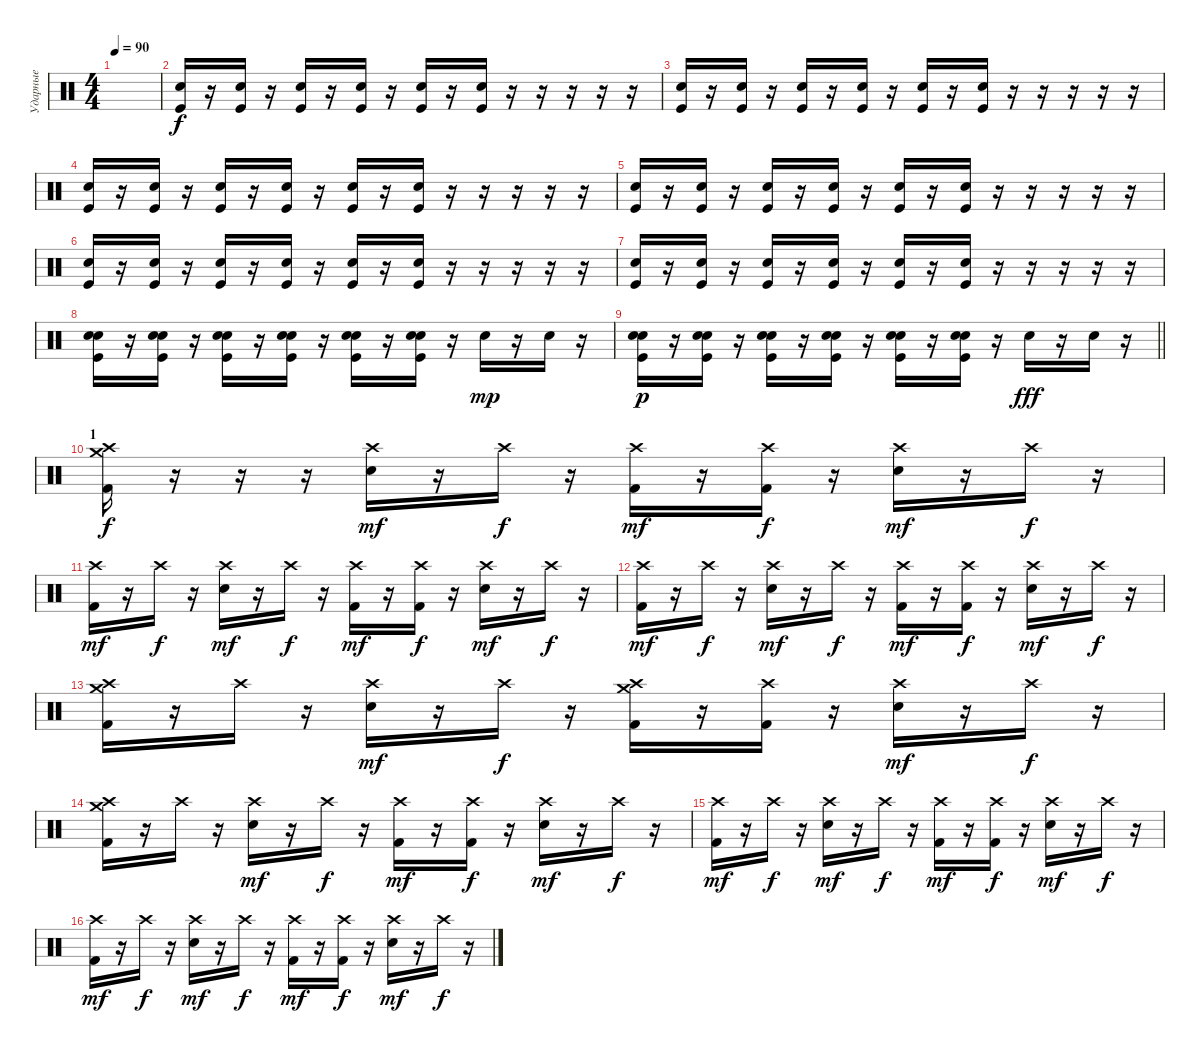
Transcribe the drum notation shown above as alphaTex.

\track ("Ударные" "Ударные") {instrument percussion}
\staff {score}
\articulation defaults
\ts (4 4)
\tempo 90
\clef neutral
\ks c
|
("Hand Clap (hit)" "Kick (hit)").16 r.16 ("Hand Clap (hit)" "Kick (hit)").16 r.16 ("Hand Clap (hit)" "Kick (hit)").16 r.16 ("Hand Clap (hit)" "Kick (hit)").16 r.16 ("Hand Clap (hit)" "Kick (hit)").16 r.16 ("Hand Clap (hit)" "Kick (hit)").16 r.16 r.16 r.16 r.16 r.16 |
("Hand Clap (hit)" "Kick (hit)").16 r.16 ("Hand Clap (hit)" "Kick (hit)").16 r.16 ("Hand Clap (hit)" "Kick (hit)").16 r.16 ("Hand Clap (hit)" "Kick (hit)").16 r.16 ("Hand Clap (hit)" "Kick (hit)").16 r.16 ("Hand Clap (hit)" "Kick (hit)").16 r.16 r.16 r.16 r.16 r.16 |
("Hand Clap (hit)" "Kick (hit)").16 r.16 ("Hand Clap (hit)" "Kick (hit)").16 r.16 ("Hand Clap (hit)" "Kick (hit)").16 r.16 ("Hand Clap (hit)" "Kick (hit)").16 r.16 ("Hand Clap (hit)" "Kick (hit)").16 r.16 ("Hand Clap (hit)" "Kick (hit)").16 r.16 r.16 r.16 r.16 r.16 |
("Hand Clap (hit)" "Kick (hit)").16 r.16 ("Hand Clap (hit)" "Kick (hit)").16 r.16 ("Hand Clap (hit)" "Kick (hit)").16 r.16 ("Hand Clap (hit)" "Kick (hit)").16 r.16 ("Hand Clap (hit)" "Kick (hit)").16 r.16 ("Hand Clap (hit)" "Kick (hit)").16 r.16 r.16 r.16 r.16 r.16 |
("Hand Clap (hit)" "Kick (hit)").16 r.16 ("Hand Clap (hit)" "Kick (hit)").16 r.16 ("Hand Clap (hit)" "Kick (hit)").16 r.16 ("Hand Clap (hit)" "Kick (hit)").16 r.16 ("Hand Clap (hit)" "Kick (hit)").16 r.16 ("Hand Clap (hit)" "Kick (hit)").16 r.16 r.16 r.16 r.16 r.16 |
("Hand Clap (hit)" "Kick (hit)").16 r.16 ("Hand Clap (hit)" "Kick (hit)").16 r.16 ("Hand Clap (hit)" "Kick (hit)").16 r.16 ("Hand Clap (hit)" "Kick (hit)").16 r.16 ("Hand Clap (hit)" "Kick (hit)").16 r.16 ("Hand Clap (hit)" "Kick (hit)").16 r.16 r.16 r.16 r.16 r.16 |
("Electric Snare (hit)" "Hand Clap (hit)" "Kick (hit)").16 r.16 ("Electric Snare (hit)" "Hand Clap (hit)" "Kick (hit)").16 r.16 ("Electric Snare (hit)" "Hand Clap (hit)" "Kick (hit)").16 r.16 ("Electric Snare (hit)" "Hand Clap (hit)" "Kick (hit)").16 r.16 ("Electric Snare (hit)" "Hand Clap (hit)" "Kick (hit)").16 r.16 ("Electric Snare (hit)" "Hand Clap (hit)" "Kick (hit)").16 r.16 "Electric Snare (hit)".16{dy mp} r.16 "Electric Snare (hit)".16 r.16 |
\barLineRight lightlight
("Electric Snare (hit)" "Hand Clap (hit)" "Kick (hit)").16{dy p} r.16 ("Electric Snare (hit)" "Hand Clap (hit)" "Kick (hit)").16 r.16 ("Electric Snare (hit)" "Hand Clap (hit)" "Kick (hit)").16 r.16 ("Electric Snare (hit)" "Hand Clap (hit)" "Kick (hit)").16 r.16 ("Electric Snare (hit)" "Hand Clap (hit)" "Kick (hit)").16 r.16 ("Electric Snare (hit)" "Hand Clap (hit)" "Kick (hit)").16 r.16 "Electric Snare (hit)".16{dy fff} r.16 "Electric Snare (hit)".16 r.16 |
\section ("" "1")
("Crash medium (hit)" "Crash high (hit)" "Kick (hit) 2").16{dy f} r.16 r.16 r.16 ("Crash high (hit)" "Electric Snare (hit)").16{dy mf} r.16 "Crash high (hit)".16{dy f} r.16 ("Crash high (hit)" "Kick (hit) 2").16{dy mf} r.16 ("Crash high (hit)" "Kick (hit) 2").16{dy f} r.16 ("Crash high (hit)" "Electric Snare (hit)").16{dy mf} r.16 "Crash high (hit)".16{dy f} r.16 |
("Crash high (hit)" "Kick (hit) 2").16{dy mf} r.16 "Crash high (hit)".16{dy f} r.16 ("Crash high (hit)" "Electric Snare (hit)").16{dy mf} r.16 "Crash high (hit)".16{dy f} r.16 ("Crash high (hit)" "Kick (hit) 2").16{dy mf} r.16 ("Crash high (hit)" "Kick (hit) 2").16{dy f} r.16 ("Crash high (hit)" "Electric Snare (hit)").16{dy mf} r.16 "Crash high (hit)".16{dy f} r.16 |
("Crash high (hit)" "Kick (hit) 2").16{dy mf} r.16 "Crash high (hit)".16{dy f} r.16 ("Crash high (hit)" "Electric Snare (hit)").16{dy mf} r.16 "Crash high (hit)".16{dy f} r.16 ("Crash high (hit)" "Kick (hit) 2").16{dy mf} r.16 ("Crash high (hit)" "Kick (hit) 2").16{dy f} r.16 ("Crash high (hit)" "Electric Snare (hit)").16{dy mf} r.16 "Crash high (hit)".16{dy f} r.16 |
("Crash medium (hit)" "Crash high (hit)" "Kick (hit) 2").16 r.16 "Crash high (hit)".16 r.16 ("Crash high (hit)" "Electric Snare (hit)").16{dy mf} r.16 "Crash high (hit)".16{dy f} r.16 ("Crash medium (hit)" "Crash high (hit)" "Kick (hit) 2").16 r.16 ("Crash high (hit)" "Kick (hit) 2").16 r.16 ("Crash high (hit)" "Electric Snare (hit)").16{dy mf} r.16 "Crash high (hit)".16{dy f} r.16 |
("Crash medium (hit)" "Crash high (hit)" "Kick (hit) 2").16 r.16 "Crash high (hit)".16 r.16 ("Crash high (hit)" "Electric Snare (hit)").16{dy mf} r.16 "Crash high (hit)".16{dy f} r.16 ("Crash high (hit)" "Kick (hit) 2").16{dy mf} r.16 ("Crash high (hit)" "Kick (hit) 2").16{dy f} r.16 ("Crash high (hit)" "Electric Snare (hit)").16{dy mf} r.16 "Crash high (hit)".16{dy f} r.16 |
("Crash high (hit)" "Kick (hit) 2").16{dy mf} r.16 "Crash high (hit)".16{dy f} r.16 ("Crash high (hit)" "Electric Snare (hit)").16{dy mf} r.16 "Crash high (hit)".16{dy f} r.16 ("Crash high (hit)" "Kick (hit) 2").16{dy mf} r.16 ("Crash high (hit)" "Kick (hit) 2").16{dy f} r.16 ("Crash high (hit)" "Electric Snare (hit)").16{dy mf} r.16 "Crash high (hit)".16{dy f} r.16 |
("Crash high (hit)" "Kick (hit) 2").16{dy mf} r.16 "Crash high (hit)".16{dy f} r.16 ("Crash high (hit)" "Electric Snare (hit)").16{dy mf} r.16 "Crash high (hit)".16{dy f} r.16 ("Crash high (hit)" "Kick (hit) 2").16{dy mf} r.16 ("Crash high (hit)" "Kick (hit) 2").16{dy f} r.16 ("Crash high (hit)" "Electric Snare (hit)").16{dy mf} r.16 "Crash high (hit)".16{dy f} r.16
